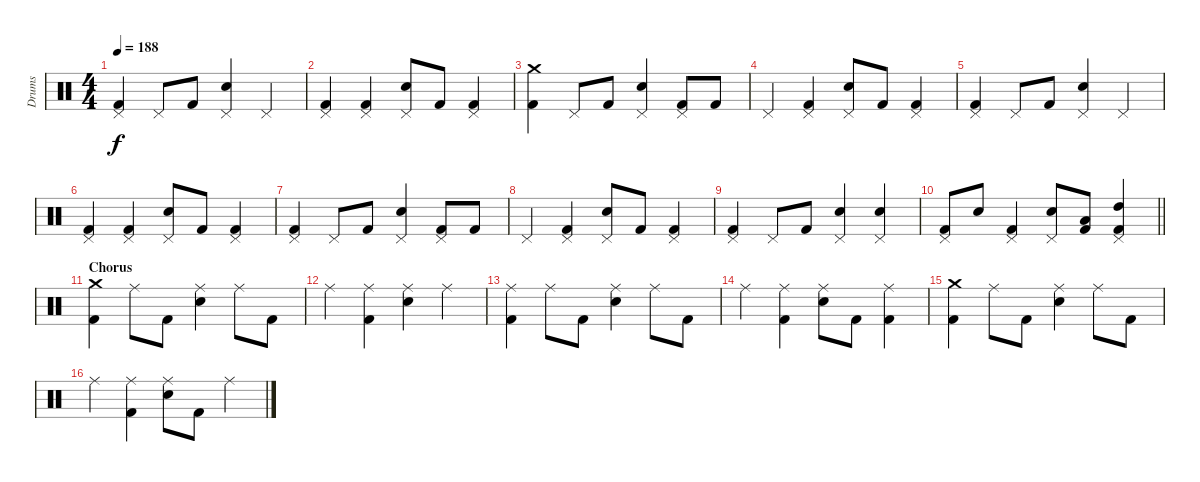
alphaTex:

\track ("Drums" "Drums") {instrument percussion}
\staff {score}
\articulation defaults
\ts (4 4)
\tempo 188
\clef neutral
\ks c
("Pedal Hi-Hat (hit)" "Kick (hit) 2").4{dy f} "Pedal Hi-Hat (hit)".8 "Kick (hit) 2".8 ("Pedal Hi-Hat (hit)" "Electric Snare (hit)").4 "Pedal Hi-Hat (hit)".4 |
("Pedal Hi-Hat (hit)" "Kick (hit) 2").4 ("Pedal Hi-Hat (hit)" "Kick (hit) 2").4 ("Pedal Hi-Hat (hit)" "Electric Snare (hit)").8 "Kick (hit) 2".8 ("Pedal Hi-Hat (hit)" "Kick (hit) 2").4 |
("Crash medium (hit)" "Kick (hit) 2").4 "Pedal Hi-Hat (hit)".8 "Kick (hit) 2".8 ("Pedal Hi-Hat (hit)" "Electric Snare (hit)").4 ("Pedal Hi-Hat (hit)" "Kick (hit) 2").8 "Kick (hit) 2".8 |
"Pedal Hi-Hat (hit)".4 ("Pedal Hi-Hat (hit)" "Kick (hit) 2").4 ("Pedal Hi-Hat (hit)" "Electric Snare (hit)").8 "Kick (hit) 2".8 ("Pedal Hi-Hat (hit)" "Kick (hit) 2").4 |
("Pedal Hi-Hat (hit)" "Kick (hit) 2").4 "Pedal Hi-Hat (hit)".8 "Kick (hit) 2".8 ("Pedal Hi-Hat (hit)" "Electric Snare (hit)").4 "Pedal Hi-Hat (hit)".4 |
("Pedal Hi-Hat (hit)" "Kick (hit) 2").4 ("Pedal Hi-Hat (hit)" "Kick (hit) 2").4 ("Pedal Hi-Hat (hit)" "Electric Snare (hit)").8 "Kick (hit) 2".8 ("Pedal Hi-Hat (hit)" "Kick (hit) 2").4 |
("Pedal Hi-Hat (hit)" "Kick (hit) 2").4 "Pedal Hi-Hat (hit)".8 "Kick (hit) 2".8 ("Pedal Hi-Hat (hit)" "Electric Snare (hit)").4 ("Pedal Hi-Hat (hit)" "Kick (hit) 2").8 "Kick (hit) 2".8 |
"Pedal Hi-Hat (hit)".4 ("Pedal Hi-Hat (hit)" "Kick (hit) 2").4 ("Pedal Hi-Hat (hit)" "Electric Snare (hit)").8 "Kick (hit) 2".8 ("Pedal Hi-Hat (hit)" "Kick (hit) 2").4 |
("Pedal Hi-Hat (hit)" "Kick (hit) 2").4 "Pedal Hi-Hat (hit)".8 "Kick (hit) 2".8 ("Pedal Hi-Hat (hit)" "Electric Snare (hit)").4 ("Pedal Hi-Hat (hit)" "Electric Snare (hit)").4 |
\barLineRight lightlight
("Pedal Hi-Hat (hit)" "Kick (hit) 2").8 "Electric Snare (hit)".8 ("Pedal Hi-Hat (hit)" "Kick (hit) 2").4 ("Pedal Hi-Hat (hit)" "Electric Snare (hit)").8 ("Low Tom (hit)" "Kick (hit) 2").8 ("Pedal Hi-Hat (hit)" "High Tom (hit)" "Kick (hit) 2").4 |
\section ("" "Chorus")
("Crash medium (hit)" "Kick (hit) 2").4 "Ride (middle)".8 "Kick (hit) 2".8 ("Ride (middle)" "Electric Snare (hit)").4 "Ride (middle)".8 "Kick (hit) 2".8 |
"Ride (middle)".4 ("Ride (middle)" "Kick (hit) 2").4 ("Ride (middle)" "Electric Snare (hit)").4 "Ride (middle)".4 |
("Ride (middle)" "Kick (hit) 2").4 "Ride (middle)".8 "Kick (hit) 2".8 ("Ride (middle)" "Electric Snare (hit)").4 "Ride (middle)".8 "Kick (hit) 2".8 |
"Ride (middle)".4 ("Ride (middle)" "Kick (hit) 2").4 ("Ride (middle)" "Electric Snare (hit)").8 "Kick (hit) 2".8 ("Ride (middle)" "Kick (hit) 2").4 |
("Crash medium (hit)" "Kick (hit) 2").4 "Ride (middle)".8 "Kick (hit) 2".8 ("Ride (middle)" "Electric Snare (hit)").4 "Ride (middle)".8 "Kick (hit) 2".8 |
"Ride (middle)".4 ("Ride (middle)" "Kick (hit) 2").4 ("Ride (middle)" "Electric Snare (hit)").8 "Kick (hit) 2".8 "Ride (middle)".4
